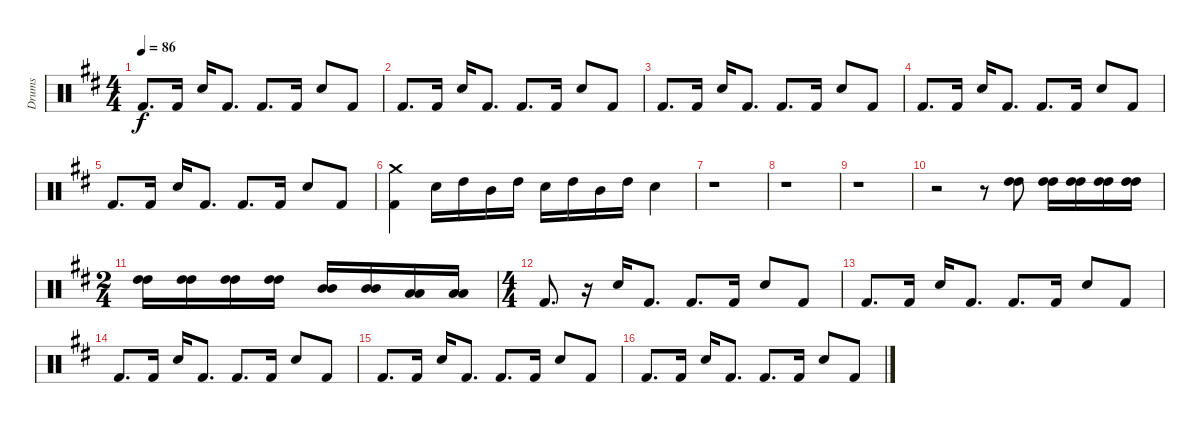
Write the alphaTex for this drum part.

\track ("Drums" "Drums") {instrument percussion}
\staff {score}
\articulation defaults
\ts (4 4)
\tempo 86
\clef neutral
\ks d "Kick (hit) 2".8{d dy f} "Kick (hit) 2".16 "Electric Snare (hit)".16 "Kick (hit) 2".8{d} "Kick (hit) 2".8{d} "Kick (hit) 2".16 "Electric Snare (hit)".8 "Kick (hit) 2".8
|
"Kick (hit) 2".8{d} "Kick (hit) 2".16 "Electric Snare (hit)".16 "Kick (hit) 2".8{d} "Kick (hit) 2".8{d} "Kick (hit) 2".16 "Electric Snare (hit)".8 "Kick (hit) 2".8 |
"Kick (hit) 2".8{d} "Kick (hit) 2".16 "Electric Snare (hit)".16 "Kick (hit) 2".8{d} "Kick (hit) 2".8{d} "Kick (hit) 2".16 "Electric Snare (hit)".8 "Kick (hit) 2".8 |
"Kick (hit) 2".8{d} "Kick (hit) 2".16 "Electric Snare (hit)".16 "Kick (hit) 2".8{d} "Kick (hit) 2".8{d} "Kick (hit) 2".16 "Electric Snare (hit)".8 "Kick (hit) 2".8 |
"Kick (hit) 2".8{d} "Kick (hit) 2".16 "Electric Snare (hit)".16 "Kick (hit) 2".8{d} "Kick (hit) 2".8{d} "Kick (hit) 2".16 "Electric Snare (hit)".8 "Kick (hit) 2".8 |
("Crash medium (hit)" "Kick (hit) 2").4 "Electric Snare (hit)".16 "High Tom (hit)".16 "Mid Tom (hit)".16 "High Tom (hit)".16 "Electric Snare (hit)".16 "High Tom (hit)".16 "Mid Tom (hit)".16 "High Tom (hit)".16 "Electric Snare (hit)".4 |
r.1 |
r.1 |
r.1 |
r.2 r.8 ("High Tom (hit)" "High Tom (hit)").8 ("High Tom (hit)" "High Tom (hit)").16 ("High Tom (hit)" "High Tom (hit)").16 ("High Tom (hit)" "High Tom (hit)").16 ("High Tom (hit)" "High Tom (hit)").16 |
\ts (2 4)
("High Tom (hit)" "High Tom (hit)").16 ("High Tom (hit)" "High Tom (hit)").16 ("High Tom (hit)" "High Tom (hit)").16 ("High Tom (hit)" "High Tom (hit)").16 ("Mid Tom (hit)" "Mid Tom (hit)").16 ("Mid Tom (hit)" "Mid Tom (hit)").16 ("Low Tom (hit)" "Low Tom (hit)").16 ("Low Tom (hit)" "Low Tom (hit)").16 |
\ts (4 4)
"Kick (hit) 2".8{d} r.16 "Electric Snare (hit)".16 "Kick (hit) 2".8{d} "Kick (hit) 2".8{d} "Kick (hit) 2".16 "Electric Snare (hit)".8 "Kick (hit) 2".8 |
"Kick (hit) 2".8{d} "Kick (hit) 2".16 "Electric Snare (hit)".16 "Kick (hit) 2".8{d} "Kick (hit) 2".8{d} "Kick (hit) 2".16 "Electric Snare (hit)".8 "Kick (hit) 2".8 |
"Kick (hit) 2".8{d} "Kick (hit) 2".16 "Electric Snare (hit)".16 "Kick (hit) 2".8{d} "Kick (hit) 2".8{d} "Kick (hit) 2".16 "Electric Snare (hit)".8 "Kick (hit) 2".8 |
"Kick (hit) 2".8{d} "Kick (hit) 2".16 "Electric Snare (hit)".16 "Kick (hit) 2".8{d} "Kick (hit) 2".8{d} "Kick (hit) 2".16 "Electric Snare (hit)".8 "Kick (hit) 2".8 |
"Kick (hit) 2".8{d} "Kick (hit) 2".16 "Electric Snare (hit)".16 "Kick (hit) 2".8{d} "Kick (hit) 2".8{d} "Kick (hit) 2".16 "Electric Snare (hit)".8 "Kick (hit) 2".8
